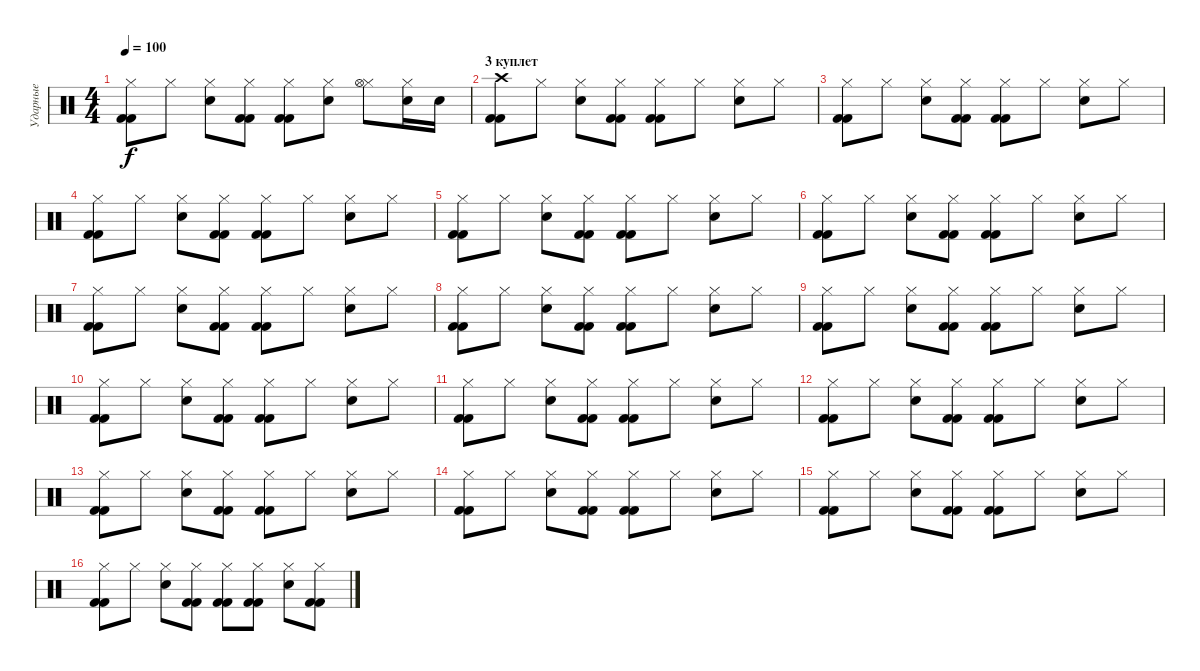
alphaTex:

\track ("Ударные" "Ударные") {instrument percussion}
\staff {score}
\articulation defaults
\ts (4 4)
\tempo 100
\clef neutral
\ks c
("Hi-Hat (closed)" "Kick (hit) 2" "Kick (hit) 2").8{dy f} "Hi-Hat (closed)".8 ("Hi-Hat (closed)" "Snare (hit) 2").8 ("Hi-Hat (closed)" "Kick (hit) 2" "Kick (hit) 2").8 ("Hi-Hat (closed)" "Kick (hit) 2" "Kick (hit) 2").8 ("Hi-Hat (closed)" "Snare (hit) 2").8 ("Hi-Hat (closed)" "Hi-Hat (open)").8 ("Hi-Hat (closed)" "Snare (hit) 2").16 "Snare (hit) 2".16 |
\section ("" "3 куплет")
("Crash high (hit)" "Kick (hit) 2" "Kick (hit) 2").8 "Hi-Hat (closed)".8 ("Hi-Hat (closed)" "Snare (hit) 2").8 ("Hi-Hat (closed)" "Kick (hit) 2" "Kick (hit) 2").8 ("Hi-Hat (closed)" "Kick (hit) 2" "Kick (hit) 2").8 "Hi-Hat (closed)".8 ("Hi-Hat (closed)" "Snare (hit) 2").8 "Hi-Hat (closed)".8 |
("Hi-Hat (closed)" "Kick (hit) 2" "Kick (hit) 2").8 "Hi-Hat (closed)".8 ("Hi-Hat (closed)" "Snare (hit) 2").8 ("Hi-Hat (closed)" "Kick (hit) 2" "Kick (hit) 2").8 ("Hi-Hat (closed)" "Kick (hit) 2" "Kick (hit) 2").8 "Hi-Hat (closed)".8 ("Hi-Hat (closed)" "Snare (hit) 2").8 "Hi-Hat (closed)".8 |
("Hi-Hat (closed)" "Kick (hit) 2" "Kick (hit) 2").8 "Hi-Hat (closed)".8 ("Hi-Hat (closed)" "Snare (hit) 2").8 ("Hi-Hat (closed)" "Kick (hit) 2" "Kick (hit) 2").8 ("Hi-Hat (closed)" "Kick (hit) 2" "Kick (hit) 2").8 "Hi-Hat (closed)".8 ("Hi-Hat (closed)" "Snare (hit) 2").8 "Hi-Hat (closed)".8 |
("Hi-Hat (closed)" "Kick (hit) 2" "Kick (hit) 2").8 "Hi-Hat (closed)".8 ("Hi-Hat (closed)" "Snare (hit) 2").8 ("Hi-Hat (closed)" "Kick (hit) 2" "Kick (hit) 2").8 ("Hi-Hat (closed)" "Kick (hit) 2" "Kick (hit) 2").8 "Hi-Hat (closed)".8 ("Hi-Hat (closed)" "Snare (hit) 2").8 "Hi-Hat (closed)".8 |
("Hi-Hat (closed)" "Kick (hit) 2" "Kick (hit) 2").8 "Hi-Hat (closed)".8 ("Hi-Hat (closed)" "Snare (hit) 2").8 ("Hi-Hat (closed)" "Kick (hit) 2" "Kick (hit) 2").8 ("Hi-Hat (closed)" "Kick (hit) 2" "Kick (hit) 2").8 "Hi-Hat (closed)".8 ("Hi-Hat (closed)" "Snare (hit) 2").8 "Hi-Hat (closed)".8 |
("Hi-Hat (closed)" "Kick (hit) 2" "Kick (hit) 2").8 "Hi-Hat (closed)".8 ("Hi-Hat (closed)" "Snare (hit) 2").8 ("Hi-Hat (closed)" "Kick (hit) 2" "Kick (hit) 2").8 ("Hi-Hat (closed)" "Kick (hit) 2" "Kick (hit) 2").8 "Hi-Hat (closed)".8 ("Hi-Hat (closed)" "Snare (hit) 2").8 "Hi-Hat (closed)".8 |
("Hi-Hat (closed)" "Kick (hit) 2" "Kick (hit) 2").8 "Hi-Hat (closed)".8 ("Hi-Hat (closed)" "Snare (hit) 2").8 ("Hi-Hat (closed)" "Kick (hit) 2" "Kick (hit) 2").8 ("Hi-Hat (closed)" "Kick (hit) 2" "Kick (hit) 2").8 "Hi-Hat (closed)".8 ("Hi-Hat (closed)" "Snare (hit) 2").8 "Hi-Hat (closed)".8 |
("Hi-Hat (closed)" "Kick (hit) 2" "Kick (hit) 2").8 "Hi-Hat (closed)".8 ("Hi-Hat (closed)" "Snare (hit) 2").8 ("Hi-Hat (closed)" "Kick (hit) 2" "Kick (hit) 2").8 ("Hi-Hat (closed)" "Kick (hit) 2" "Kick (hit) 2").8 "Hi-Hat (closed)".8 ("Hi-Hat (closed)" "Snare (hit) 2").8 "Hi-Hat (closed)".8 |
("Hi-Hat (closed)" "Kick (hit) 2" "Kick (hit) 2").8 "Hi-Hat (closed)".8 ("Hi-Hat (closed)" "Snare (hit) 2").8 ("Hi-Hat (closed)" "Kick (hit) 2" "Kick (hit) 2").8 ("Hi-Hat (closed)" "Kick (hit) 2" "Kick (hit) 2").8 "Hi-Hat (closed)".8 ("Hi-Hat (closed)" "Snare (hit) 2").8 "Hi-Hat (closed)".8 |
("Hi-Hat (closed)" "Kick (hit) 2" "Kick (hit) 2").8 "Hi-Hat (closed)".8 ("Hi-Hat (closed)" "Snare (hit) 2").8 ("Hi-Hat (closed)" "Kick (hit) 2" "Kick (hit) 2").8 ("Hi-Hat (closed)" "Kick (hit) 2" "Kick (hit) 2").8 "Hi-Hat (closed)".8 ("Hi-Hat (closed)" "Snare (hit) 2").8 "Hi-Hat (closed)".8 |
("Hi-Hat (closed)" "Kick (hit) 2" "Kick (hit) 2").8 "Hi-Hat (closed)".8 ("Hi-Hat (closed)" "Snare (hit) 2").8 ("Hi-Hat (closed)" "Kick (hit) 2" "Kick (hit) 2").8 ("Hi-Hat (closed)" "Kick (hit) 2" "Kick (hit) 2").8 "Hi-Hat (closed)".8 ("Hi-Hat (closed)" "Snare (hit) 2").8 "Hi-Hat (closed)".8 |
("Hi-Hat (closed)" "Kick (hit) 2" "Kick (hit) 2").8 "Hi-Hat (closed)".8 ("Hi-Hat (closed)" "Snare (hit) 2").8 ("Hi-Hat (closed)" "Kick (hit) 2" "Kick (hit) 2").8 ("Hi-Hat (closed)" "Kick (hit) 2" "Kick (hit) 2").8 "Hi-Hat (closed)".8 ("Hi-Hat (closed)" "Snare (hit) 2").8 "Hi-Hat (closed)".8 |
("Hi-Hat (closed)" "Kick (hit) 2" "Kick (hit) 2").8 "Hi-Hat (closed)".8 ("Hi-Hat (closed)" "Snare (hit) 2").8 ("Hi-Hat (closed)" "Kick (hit) 2" "Kick (hit) 2").8 ("Hi-Hat (closed)" "Kick (hit) 2" "Kick (hit) 2").8 "Hi-Hat (closed)".8 ("Hi-Hat (closed)" "Snare (hit) 2").8 "Hi-Hat (closed)".8 |
("Hi-Hat (closed)" "Kick (hit) 2" "Kick (hit) 2").8 "Hi-Hat (closed)".8 ("Hi-Hat (closed)" "Snare (hit) 2").8 ("Hi-Hat (closed)" "Kick (hit) 2" "Kick (hit) 2").8 ("Hi-Hat (closed)" "Kick (hit) 2" "Kick (hit) 2").8 "Hi-Hat (closed)".8 ("Hi-Hat (closed)" "Snare (hit) 2").8 "Hi-Hat (closed)".8 |
("Hi-Hat (closed)" "Kick (hit) 2" "Kick (hit) 2").8 "Hi-Hat (closed)".8 ("Hi-Hat (closed)" "Snare (hit) 2").8 ("Hi-Hat (closed)" "Kick (hit) 2" "Kick (hit) 2").8 ("Hi-Hat (closed)" "Kick (hit) 2" "Kick (hit) 2").8 ("Hi-Hat (closed)" "Kick (hit) 2" "Kick (hit) 2").8 ("Hi-Hat (closed)" "Snare (hit) 2").8 ("Hi-Hat (closed)" "Kick (hit) 2" "Kick (hit) 2").8
